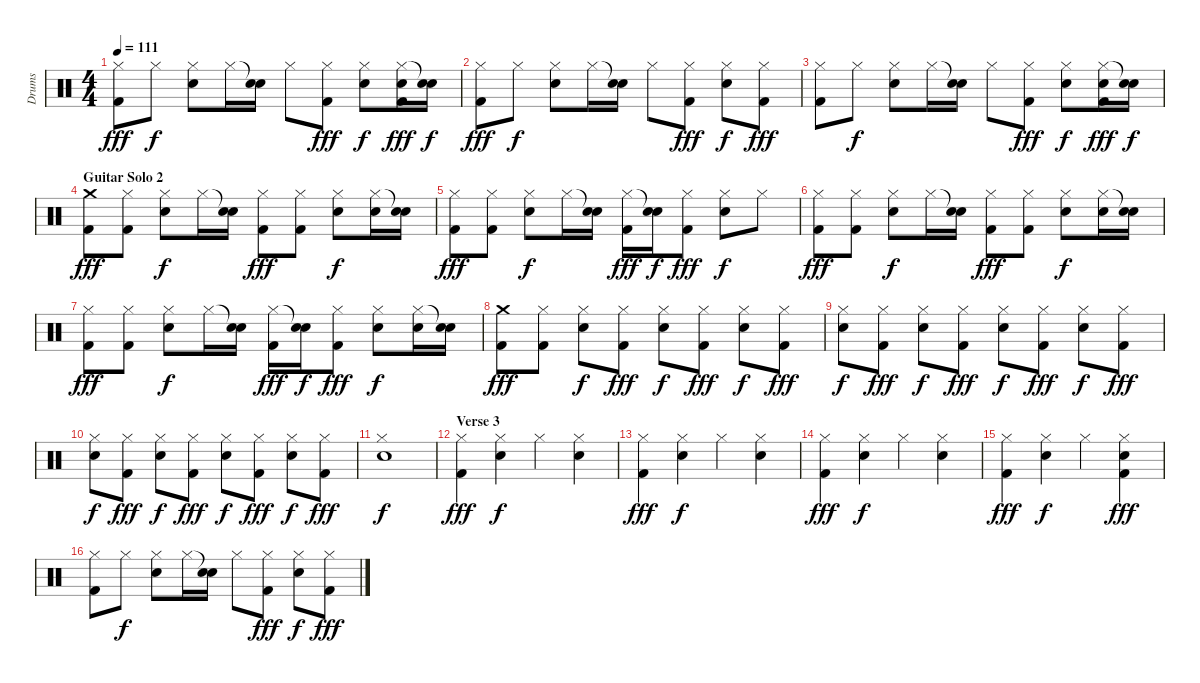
\track ("Drums" "Drums") {instrument percussion}
\staff {score}
\articulation defaults
\ts (4 4)
\tempo 111
\clef neutral
\ks c
("Hi-Hat (closed)" "Kick (hit) 2").8{dy fff} "Hi-Hat (closed)".8{dy f} ("Hi-Hat (closed)" "Snare (hit) 2").8 "Hi-Hat (closed)".16 ("Snare (hit)"{t} "Snare (hit) 2").16 "Hi-Hat (closed)".8 ("Hi-Hat (closed)" "Kick (hit) 2").8{dy fff} ("Hi-Hat (closed)" "Snare (hit) 2").8{dy f} ("Hi-Hat (closed)" "Snare (hit) 2" "Kick (hit) 2").16{dy fff} ("Snare (hit)"{t} "Snare (hit) 2").16{dy f} |
("Hi-Hat (closed)" "Kick (hit) 2").8{dy fff} "Hi-Hat (closed)".8{dy f} ("Hi-Hat (closed)" "Snare (hit) 2").8 "Hi-Hat (closed)".16 ("Snare (hit)"{t} "Snare (hit) 2").16 "Hi-Hat (closed)".8 ("Hi-Hat (closed)" "Kick (hit) 2").8{dy fff} ("Hi-Hat (closed)" "Snare (hit) 2").8{dy f} ("Hi-Hat (closed)" "Kick (hit) 2").8{dy fff} |
("Hi-Hat (closed)" "Kick (hit) 2").8 "Hi-Hat (closed)".8{dy f} ("Hi-Hat (closed)" "Snare (hit) 2").8 "Hi-Hat (closed)".16 ("Snare (hit)"{t} "Snare (hit) 2").16 "Hi-Hat (closed)".8 ("Hi-Hat (closed)" "Kick (hit) 2").8{dy fff} ("Hi-Hat (closed)" "Snare (hit) 2").8{dy f} ("Hi-Hat (closed)" "Snare (hit) 2" "Kick (hit) 2").16{dy fff} ("Snare (hit)"{t} "Snare (hit) 2").16{dy f} |
\section ("" "Guitar Solo 2")
("Crash medium (hit)" "Kick (hit) 2").8{dy fff} ("Hi-Hat (closed)" "Kick (hit) 2").8 ("Hi-Hat (closed)" "Snare (hit) 2").8{dy f} "Hi-Hat (closed)".16 ("Snare (hit)"{t} "Snare (hit) 2").16 ("Hi-Hat (closed)" "Kick (hit) 2").8{dy fff} ("Hi-Hat (closed)" "Kick (hit) 2").8 ("Hi-Hat (closed)" "Snare (hit) 2").8{dy f} ("Hi-Hat (closed)" "Snare (hit) 2").16 ("Snare (hit)"{t} "Snare (hit) 2").16 |
("Hi-Hat (closed)" "Kick (hit) 2").8{dy fff} ("Hi-Hat (closed)" "Kick (hit) 2").8 ("Hi-Hat (closed)" "Snare (hit) 2").8{dy f} "Hi-Hat (closed)".16 ("Snare (hit)"{t} "Snare (hit) 2").16 ("Hi-Hat (closed)" "Kick (hit) 2").16{dy fff} ("Snare (hit)"{t} "Snare (hit) 2").16{dy f} ("Hi-Hat (closed)" "Kick (hit) 2").8{dy fff} ("Hi-Hat (closed)" "Snare (hit) 2").8{dy f} "Hi-Hat (closed)".8 |
("Hi-Hat (closed)" "Kick (hit) 2").8{dy fff} ("Hi-Hat (closed)" "Kick (hit) 2").8 ("Hi-Hat (closed)" "Snare (hit) 2").8{dy f} "Hi-Hat (closed)".16 ("Snare (hit)"{t} "Snare (hit) 2").16 ("Hi-Hat (closed)" "Kick (hit) 2").8{dy fff} ("Hi-Hat (closed)" "Kick (hit) 2").8 ("Hi-Hat (closed)" "Snare (hit) 2").8{dy f} ("Hi-Hat (closed)" "Snare (hit) 2").16 ("Snare (hit)"{t} "Snare (hit) 2").16 |
("Hi-Hat (closed)" "Kick (hit) 2").8{dy fff} ("Hi-Hat (closed)" "Kick (hit) 2").8 ("Hi-Hat (closed)" "Snare (hit) 2").8{dy f} "Hi-Hat (closed)".16 ("Snare (hit)"{t} "Snare (hit) 2").16 ("Hi-Hat (closed)" "Kick (hit) 2").16{dy fff} ("Snare (hit)"{t} "Snare (hit) 2").16{dy f} ("Hi-Hat (closed)" "Kick (hit) 2").8{dy fff} ("Hi-Hat (closed)" "Snare (hit) 2").8{dy f} ("Hi-Hat (closed)" "Snare (hit) 2").16 ("Snare (hit)"{t} "Snare (hit) 2").16 |
("Crash medium (hit)" "Kick (hit) 2").8{dy fff} ("Hi-Hat (closed)" "Kick (hit) 2").8 ("Hi-Hat (closed)" "Snare (hit) 2").8{dy f} ("Hi-Hat (closed)" "Kick (hit) 2").8{dy fff} ("Hi-Hat (closed)" "Snare (hit) 2").8{dy f} ("Hi-Hat (closed)" "Kick (hit) 2").8{dy fff} ("Hi-Hat (closed)" "Snare (hit) 2").8{dy f} ("Hi-Hat (closed)" "Kick (hit) 2").8{dy fff} |
("Hi-Hat (closed)" "Snare (hit) 2").8{dy f} ("Hi-Hat (closed)" "Kick (hit) 2").8{dy fff} ("Hi-Hat (closed)" "Snare (hit) 2").8{dy f} ("Hi-Hat (closed)" "Kick (hit) 2").8{dy fff} ("Hi-Hat (closed)" "Snare (hit) 2").8{dy f} ("Hi-Hat (closed)" "Kick (hit) 2").8{dy fff} ("Hi-Hat (closed)" "Snare (hit) 2").8{dy f} ("Hi-Hat (closed)" "Kick (hit) 2").8{dy fff} |
("Hi-Hat (closed)" "Snare (hit) 2").8{dy f} ("Hi-Hat (closed)" "Kick (hit) 2").8{dy fff} ("Hi-Hat (closed)" "Snare (hit) 2").8{dy f} ("Hi-Hat (closed)" "Kick (hit) 2").8{dy fff} ("Hi-Hat (closed)" "Snare (hit) 2").8{dy f} ("Hi-Hat (closed)" "Kick (hit) 2").8{dy fff} ("Hi-Hat (closed)" "Snare (hit) 2").8{dy f} ("Hi-Hat (closed)" "Kick (hit) 2").8{dy fff} |
("Hi-Hat (closed)" "Snare (hit) 2").1{dy f} |
\section ("" "Verse 3")
("Hi-Hat (closed)" "Kick (hit) 2").4{dy fff} ("Hi-Hat (closed)" "Snare (hit) 2").4{dy f} "Hi-Hat (closed)".4 ("Hi-Hat (closed)" "Snare (hit) 2").4 |
("Hi-Hat (closed)" "Kick (hit) 2").4{dy fff} ("Hi-Hat (closed)" "Snare (hit) 2").4{dy f} "Hi-Hat (closed)".4 ("Hi-Hat (closed)" "Snare (hit) 2").4 |
("Hi-Hat (closed)" "Kick (hit) 2").4{dy fff} ("Hi-Hat (closed)" "Snare (hit) 2").4{dy f} "Hi-Hat (closed)".4 ("Hi-Hat (closed)" "Snare (hit) 2").4 |
("Hi-Hat (closed)" "Kick (hit) 2").4{dy fff} ("Hi-Hat (closed)" "Snare (hit) 2").4{dy f} "Hi-Hat (closed)".4 ("Hi-Hat (closed)" "Snare (hit) 2" "Kick (hit) 2").4{dy fff} |
("Hi-Hat (closed)" "Kick (hit) 2").8 "Hi-Hat (closed)".8{dy f} ("Hi-Hat (closed)" "Snare (hit) 2").8 "Hi-Hat (closed)".16 ("Snare (hit)"{t} "Snare (hit) 2").16 "Hi-Hat (closed)".8 ("Hi-Hat (closed)" "Kick (hit) 2").8{dy fff} ("Hi-Hat (closed)" "Snare (hit) 2").8{dy f} ("Hi-Hat (closed)" "Kick (hit) 2").8{dy fff}
